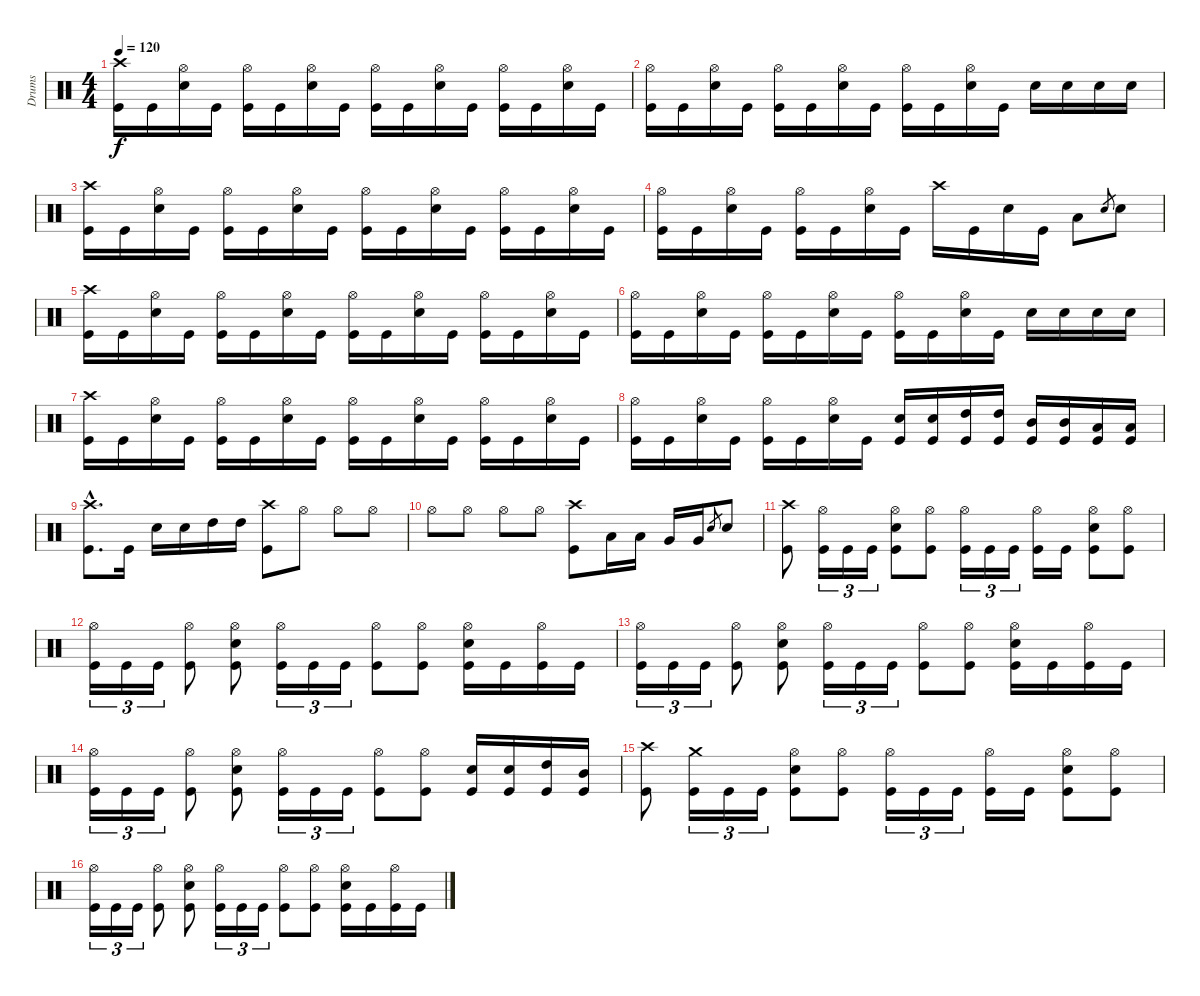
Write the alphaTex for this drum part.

\track ("Drums" "Drums") {instrument percussion}
\staff {score}
\articulation defaults
\ts (4 4)
\tempo 120
\clef neutral
\ks c
("Kick (hit)" "Crash high (hit)").16{dy f} "Kick (hit)".16 ("Electric Snare (hit)" "Hi-Hat (open)").16 "Kick (hit)".16 ("Kick (hit)" "Hi-Hat (open)").16 "Kick (hit)".16 ("Electric Snare (hit)" "Hi-Hat (open)").16 "Kick (hit)".16 ("Kick (hit)" "Hi-Hat (open)").16 "Kick (hit)".16 ("Electric Snare (hit)" "Hi-Hat (open)").16 "Kick (hit)".16 ("Kick (hit)" "Hi-Hat (open)").16 "Kick (hit)".16 ("Electric Snare (hit)" "Hi-Hat (open)").16 "Kick (hit)".16 |
("Kick (hit)" "Hi-Hat (open)").16 "Kick (hit)".16 ("Electric Snare (hit)" "Hi-Hat (open)").16 "Kick (hit)".16 ("Kick (hit)" "Hi-Hat (open)").16 "Kick (hit)".16 ("Electric Snare (hit)" "Hi-Hat (open)").16 "Kick (hit)".16 ("Kick (hit)" "Hi-Hat (open)").16 "Kick (hit)".16 ("Electric Snare (hit)" "Hi-Hat (open)").16 "Kick (hit)".16 "Electric Snare (hit)".16 "Electric Snare (hit)".16 "Electric Snare (hit)".16 "Electric Snare (hit)".16 |
("Kick (hit)" "Crash high (hit)").16 "Kick (hit)".16 ("Electric Snare (hit)" "Hi-Hat (open)").16 "Kick (hit)".16 ("Kick (hit)" "Hi-Hat (open)").16 "Kick (hit)".16 ("Electric Snare (hit)" "Hi-Hat (open)").16 "Kick (hit)".16 ("Kick (hit)" "Hi-Hat (open)").16 "Kick (hit)".16 ("Electric Snare (hit)" "Hi-Hat (open)").16 "Kick (hit)".16 ("Kick (hit)" "Hi-Hat (open)").16 "Kick (hit)".16 ("Electric Snare (hit)" "Hi-Hat (open)").16 "Kick (hit)".16 |
("Kick (hit)" "Hi-Hat (open)").16 "Kick (hit)".16 ("Electric Snare (hit)" "Hi-Hat (open)").16 "Kick (hit)".16 ("Kick (hit)" "Hi-Hat (open)").16 "Kick (hit)".16 ("Electric Snare (hit)" "Hi-Hat (open)").16 "Kick (hit)".16 "Crash high (hit)".16 "Kick (hit)".16 "Electric Snare (hit)".16 "Kick (hit)".16 "Low Tom (hit)".8 "Electric Snare (hit)".8{gr} "Electric Snare (hit)".8 |
("Kick (hit)" "Crash high (hit)").16 "Kick (hit)".16 ("Electric Snare (hit)" "Hi-Hat (open)").16 "Kick (hit)".16 ("Kick (hit)" "Hi-Hat (open)").16 "Kick (hit)".16 ("Electric Snare (hit)" "Hi-Hat (open)").16 "Kick (hit)".16 ("Kick (hit)" "Hi-Hat (open)").16 "Kick (hit)".16 ("Electric Snare (hit)" "Hi-Hat (open)").16 "Kick (hit)".16 ("Kick (hit)" "Hi-Hat (open)").16 "Kick (hit)".16 ("Electric Snare (hit)" "Hi-Hat (open)").16 "Kick (hit)".16 |
("Kick (hit)" "Hi-Hat (open)").16 "Kick (hit)".16 ("Electric Snare (hit)" "Hi-Hat (open)").16 "Kick (hit)".16 ("Kick (hit)" "Hi-Hat (open)").16 "Kick (hit)".16 ("Electric Snare (hit)" "Hi-Hat (open)").16 "Kick (hit)".16 ("Kick (hit)" "Hi-Hat (open)").16 "Kick (hit)".16 ("Electric Snare (hit)" "Hi-Hat (open)").16 "Kick (hit)".16 "Electric Snare (hit)".16 "Electric Snare (hit)".16 "Electric Snare (hit)".16 "Electric Snare (hit)".16 |
("Kick (hit)" "Crash high (hit)").16 "Kick (hit)".16 ("Electric Snare (hit)" "Hi-Hat (open)").16 "Kick (hit)".16 ("Kick (hit)" "Hi-Hat (open)").16 "Kick (hit)".16 ("Electric Snare (hit)" "Hi-Hat (open)").16 "Kick (hit)".16 ("Kick (hit)" "Hi-Hat (open)").16 "Kick (hit)".16 ("Electric Snare (hit)" "Hi-Hat (open)").16 "Kick (hit)".16 ("Kick (hit)" "Hi-Hat (open)").16 "Kick (hit)".16 ("Electric Snare (hit)" "Hi-Hat (open)").16 "Kick (hit)".16 |
("Kick (hit)" "Hi-Hat (open)").16 "Kick (hit)".16 ("Electric Snare (hit)" "Hi-Hat (open)").16 "Kick (hit)".16 ("Kick (hit)" "Hi-Hat (open)").16 "Kick (hit)".16 ("Electric Snare (hit)" "Hi-Hat (open)").16 "Kick (hit)".16 ("Kick (hit)" "Electric Snare (hit)").16 ("Kick (hit)" "Electric Snare (hit)").16 ("Kick (hit)" "High Tom (hit)").16 ("Kick (hit)" "High Tom (hit)").16 ("Kick (hit)" "Mid Tom (hit)").16 ("Kick (hit)" "Mid Tom (hit)").16 ("Kick (hit)" "Low Tom (hit)").16 ("Kick (hit)" "Low Tom (hit)").16 |
("Kick (hit)"{hac} "Crash high (hit)"{hac}).8{d} "Kick (hit)".16 "Electric Snare (hit)".16 "Electric Snare (hit)".16 "High Tom (hit)".16 "High Tom (hit)".16 ("Kick (hit)" "Crash high (hit)").8 "Hi-Hat (open)".8 "Hi-Hat (open)".8 "Hi-Hat (open)".8 |
"Hi-Hat (open)".8 "Hi-Hat (open)".8 "Hi-Hat (open)".8 "Hi-Hat (open)".8 ("Kick (hit)" "Crash high (hit)").8 "Low Tom (hit)".16 "Low Tom (hit)".16 "Very Low Tom (hit)".16 "Very Low Tom (hit)".16 "Electric Snare (hit)".8{gr} "Electric Snare (hit)".8 |
("Kick (hit)" "Crash high (hit)").8 ("Kick (hit)" "Hi-Hat (open)").16{tu (3 2)} "Kick (hit)".16{tu (3 2)} "Kick (hit)".16{tu (3 2)} ("Kick (hit)" "Electric Snare (hit)" "Hi-Hat (open)").8 ("Kick (hit)" "Hi-Hat (open)").8 ("Kick (hit)" "Hi-Hat (open)").16{tu (3 2)} "Kick (hit)".16{tu (3 2)} "Kick (hit)".16{tu (3 2)} ("Kick (hit)" "Hi-Hat (open)").16 "Kick (hit)".16 ("Kick (hit)" "Electric Snare (hit)" "Hi-Hat (open)").8 ("Kick (hit)" "Hi-Hat (open)").8 |
("Kick (hit)" "Hi-Hat (open)").16{tu (3 2)} "Kick (hit)".16{tu (3 2)} "Kick (hit)".16{tu (3 2)} ("Kick (hit)" "Hi-Hat (open)").8 ("Kick (hit)" "Electric Snare (hit)" "Hi-Hat (open)").8 ("Kick (hit)" "Hi-Hat (open)").16{tu (3 2)} "Kick (hit)".16{tu (3 2)} "Kick (hit)".16{tu (3 2)} ("Kick (hit)" "Hi-Hat (open)").8 ("Kick (hit)" "Hi-Hat (open)").8 ("Kick (hit)" "Electric Snare (hit)" "Hi-Hat (open)").16 "Kick (hit)".16 ("Kick (hit)" "Hi-Hat (open)").16 "Kick (hit)".16 |
("Kick (hit)" "Hi-Hat (open)").16{tu (3 2)} "Kick (hit)".16{tu (3 2)} "Kick (hit)".16{tu (3 2)} ("Kick (hit)" "Hi-Hat (open)").8 ("Kick (hit)" "Electric Snare (hit)" "Hi-Hat (open)").8 ("Kick (hit)" "Hi-Hat (open)").16{tu (3 2)} "Kick (hit)".16{tu (3 2)} "Kick (hit)".16{tu (3 2)} ("Kick (hit)" "Hi-Hat (open)").8 ("Kick (hit)" "Hi-Hat (open)").8 ("Kick (hit)" "Electric Snare (hit)" "Hi-Hat (open)").16 "Kick (hit)".16 ("Kick (hit)" "Hi-Hat (open)").16 "Kick (hit)".16 |
("Kick (hit)" "Hi-Hat (open)").16{tu (3 2)} "Kick (hit)".16{tu (3 2)} "Kick (hit)".16{tu (3 2)} ("Kick (hit)" "Hi-Hat (open)").8 ("Kick (hit)" "Electric Snare (hit)" "Hi-Hat (open)").8 ("Kick (hit)" "Hi-Hat (open)").16{tu (3 2)} "Kick (hit)".16{tu (3 2)} "Kick (hit)".16{tu (3 2)} ("Kick (hit)" "Hi-Hat (open)").8 ("Kick (hit)" "Hi-Hat (open)").8 ("Kick (hit)" "Electric Snare (hit)").16 ("Kick (hit)" "Electric Snare (hit)").16 ("Kick (hit)" "High Tom (hit)").16 ("Kick (hit)" "Mid Tom (hit)").16 |
("Kick (hit)" "Crash high (hit)").8 ("Kick (hit)" "Crash medium (hit)").16{tu (3 2)} "Kick (hit)".16{tu (3 2)} "Kick (hit)".16{tu (3 2)} ("Kick (hit)" "Electric Snare (hit)" "Hi-Hat (open)").8 ("Kick (hit)" "Hi-Hat (open)").8 ("Kick (hit)" "Hi-Hat (open)").16{tu (3 2)} "Kick (hit)".16{tu (3 2)} "Kick (hit)".16{tu (3 2)} ("Kick (hit)" "Hi-Hat (open)").16 "Kick (hit)".16 ("Kick (hit)" "Electric Snare (hit)" "Hi-Hat (open)").8 ("Kick (hit)" "Hi-Hat (open)").8 |
("Kick (hit)" "Hi-Hat (open)").16{tu (3 2)} "Kick (hit)".16{tu (3 2)} "Kick (hit)".16{tu (3 2)} ("Kick (hit)" "Hi-Hat (open)").8 ("Kick (hit)" "Electric Snare (hit)" "Hi-Hat (open)").8 ("Kick (hit)" "Hi-Hat (open)").16{tu (3 2)} "Kick (hit)".16{tu (3 2)} "Kick (hit)".16{tu (3 2)} ("Kick (hit)" "Hi-Hat (open)").8 ("Kick (hit)" "Hi-Hat (open)").8 ("Kick (hit)" "Electric Snare (hit)" "Hi-Hat (open)").16 "Kick (hit)".16 ("Kick (hit)" "Hi-Hat (open)").16 "Kick (hit)".16
